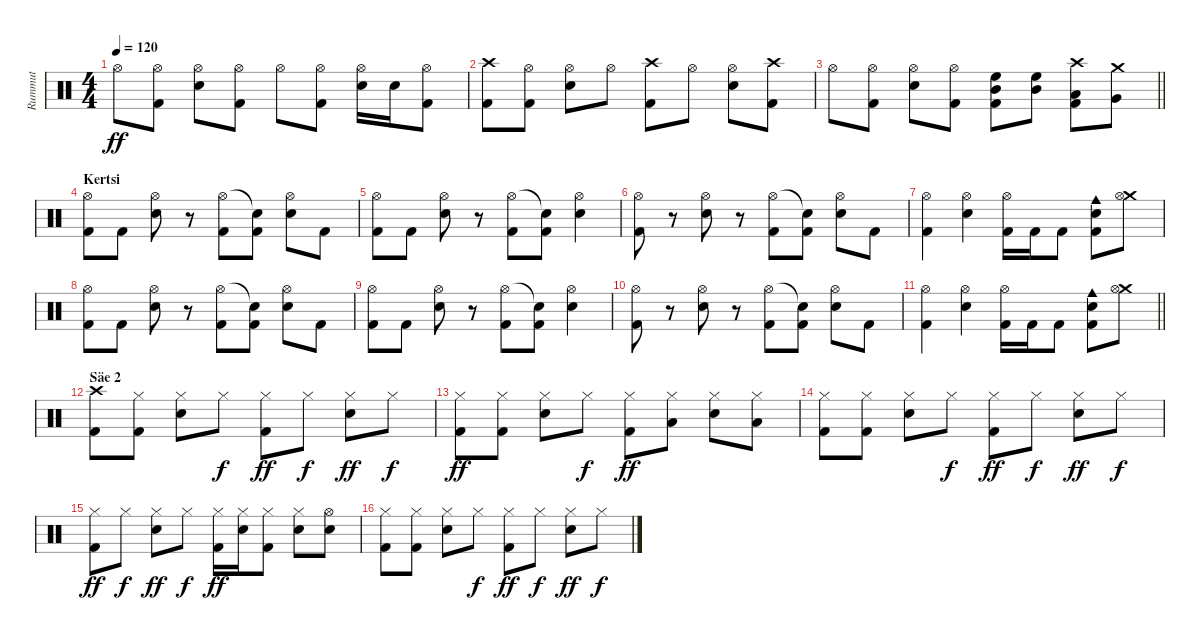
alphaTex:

\track ("Rummut" "Rummut") {instrument percussion}
\staff {score}
\articulation defaults
\ts (4 4)
\tempo 120
\clef neutral
\ks c "Hi-Hat (open)".8{dy ff}
("Hi-Hat (open)" "Kick (hit) 2").8 ("Hi-Hat (open)" "Snare (hit) 2").8 ("Hi-Hat (open)" "Kick (hit) 2").8 "Hi-Hat (open)".8 ("Hi-Hat (open)" "Kick (hit) 2").8 ("Hi-Hat (open)" "Snare (hit) 2").16 "Snare (hit) 2".16 ("Hi-Hat (open)" "Kick (hit) 2").8 |
("Crash high (hit)" "Kick (hit) 2").8 ("Hi-Hat (open)" "Kick (hit) 2").8 ("Hi-Hat (open)" "Snare (hit) 2").8 "Hi-Hat (open)".8 ("Crash high (hit)" "Kick (hit) 2").8 "Hi-Hat (open)".8 ("Hi-Hat (open)" "Snare (hit) 2").8 ("Crash high (hit)" "Kick (hit) 2").8 |
\barLineRight lightlight "Hi-Hat (open)".8
("Hi-Hat (open)" "Kick (hit) 2").8 ("Hi-Hat (open)" "Snare (hit) 2").8 ("Hi-Hat (open)" "Kick (hit) 2").8 ("Mid Tom (hit)" "High Floor Tom (hit)" "Kick (hit) 2").8 ("Mid Tom (hit)" "High Floor Tom (hit)").8 ("Low Tom (hit)" "Kick (hit) 2" "Crash high (hit)").8 ("Very Low Tom (hit)" "Crash medium (hit)").8 |
\section ("" "Kertsi")
("Hi-Hat (open)" "Kick (hit) 2").8 "Kick (hit) 2".8 ("Hi-Hat (open)" "Snare (hit) 2").8 r.8 ("Hi-Hat (open)" "Kick (hit) 2").8 ("Snare (hit)"{t} "Kick (hit) 2").8 ("Hi-Hat (open)" "Snare (hit) 2").8 "Kick (hit) 2".8 |
("Hi-Hat (open)" "Kick (hit) 2").8 "Kick (hit) 2".8 ("Hi-Hat (open)" "Snare (hit) 2").8 r.8 ("Hi-Hat (open)" "Kick (hit) 2").8 ("Snare (hit)"{t} "Kick (hit) 2").8 ("Hi-Hat (open)" "Snare (hit) 2").4 |
("Hi-Hat (open)" "Kick (hit) 2").8 r.8 ("Hi-Hat (open)" "Snare (hit) 2").8 r.8 ("Hi-Hat (open)" "Kick (hit) 2").8 ("Snare (hit)"{t} "Kick (hit) 2").8 ("Hi-Hat (open)" "Snare (hit) 2").8 "Kick (hit) 2".8 |
("Hi-Hat (open)" "Kick (hit) 2").4 ("Hi-Hat (open)" "Snare (hit) 2").4 ("Hi-Hat (open)" "Kick (hit) 2").16 "Kick (hit) 2".16 "Kick (hit) 2".8 ("Cowbell medium (hit)" "Snare (hit) 2" "Kick (hit) 2").8 ("Crash medium (hit)" "Hi-Hat (open)").8 |
("Hi-Hat (open)" "Kick (hit) 2").8 "Kick (hit) 2".8 ("Hi-Hat (open)" "Snare (hit) 2").8 r.8 ("Hi-Hat (open)" "Kick (hit) 2").8 ("Snare (hit)"{t} "Kick (hit) 2").8 ("Hi-Hat (open)" "Snare (hit) 2").8 "Kick (hit) 2".8 |
("Hi-Hat (open)" "Kick (hit) 2").8 "Kick (hit) 2".8 ("Hi-Hat (open)" "Snare (hit) 2").8 r.8 ("Hi-Hat (open)" "Kick (hit) 2").8 ("Snare (hit)"{t} "Kick (hit) 2").8 ("Hi-Hat (open)" "Snare (hit) 2").4 |
("Hi-Hat (open)" "Kick (hit) 2").8 r.8 ("Hi-Hat (open)" "Snare (hit) 2").8 r.8 ("Hi-Hat (open)" "Kick (hit) 2").8 ("Snare (hit)"{t} "Kick (hit) 2").8 ("Hi-Hat (open)" "Snare (hit) 2").8 "Kick (hit) 2".8 |
\barLineRight lightlight
("Hi-Hat (open)" "Kick (hit) 2").4 ("Hi-Hat (open)" "Snare (hit) 2").4 ("Hi-Hat (open)" "Kick (hit) 2").16 "Kick (hit) 2".16 "Kick (hit) 2".8 ("Cowbell medium (hit)" "Snare (hit) 2" "Kick (hit) 2").8 ("Crash medium (hit)" "Hi-Hat (open)").8 |
\section ("" "Säe 2")
("Crash high (hit)" "Kick (hit) 2").8 ("Hi-Hat (closed)" "Kick (hit) 2").8 ("Hi-Hat (closed)" "Snare (hit) 2").8 "Hi-Hat (closed)".8{dy f} ("Hi-Hat (closed)" "Kick (hit) 2").8{dy ff} "Hi-Hat (closed)".8{dy f} ("Hi-Hat (closed)" "Snare (hit) 2").8{dy ff} "Hi-Hat (closed)".8{dy f} |
("Hi-Hat (closed)" "Kick (hit) 2").8{dy ff} ("Hi-Hat (closed)" "Kick (hit) 2").8 ("Hi-Hat (closed)" "Snare (hit) 2").8 "Hi-Hat (closed)".8{dy f} ("Hi-Hat (closed)" "Kick (hit) 2").8{dy ff} ("Hi-Hat (closed)" "Low Tom (hit)").8 ("Hi-Hat (closed)" "Snare (hit) 2").8 ("Hi-Hat (closed)" "Low Floor Tom (hit)").8 |
("Hi-Hat (closed)" "Kick (hit) 2").8 ("Hi-Hat (closed)" "Kick (hit) 2").8 ("Hi-Hat (closed)" "Snare (hit) 2").8 "Hi-Hat (closed)".8{dy f} ("Hi-Hat (closed)" "Kick (hit) 2").8{dy ff} "Hi-Hat (closed)".8{dy f} ("Hi-Hat (closed)" "Snare (hit) 2").8{dy ff} "Hi-Hat (closed)".8{dy f} |
("Hi-Hat (closed)" "Kick (hit) 2").8{dy ff} "Hi-Hat (closed)".8{dy f} ("Hi-Hat (closed)" "Snare (hit) 2").8{dy ff} "Hi-Hat (closed)".8{dy f} ("Hi-Hat (closed)" "Kick (hit) 2").16{dy ff} ("Hi-Hat (closed)" "Snare (hit) 2").16 ("Hi-Hat (closed)" "Kick (hit) 2").8 ("Hi-Hat (closed)" "Snare (hit) 2").8 ("Hi-Hat (open)" "Snare (hit) 2").8 |
("Hi-Hat (closed)" "Kick (hit) 2").8 ("Hi-Hat (closed)" "Kick (hit) 2").8 ("Hi-Hat (closed)" "Snare (hit) 2").8 "Hi-Hat (closed)".8{dy f} ("Hi-Hat (closed)" "Kick (hit) 2").8{dy ff} "Hi-Hat (closed)".8{dy f} ("Hi-Hat (closed)" "Snare (hit) 2").8{dy ff} "Hi-Hat (closed)".8{dy f}
